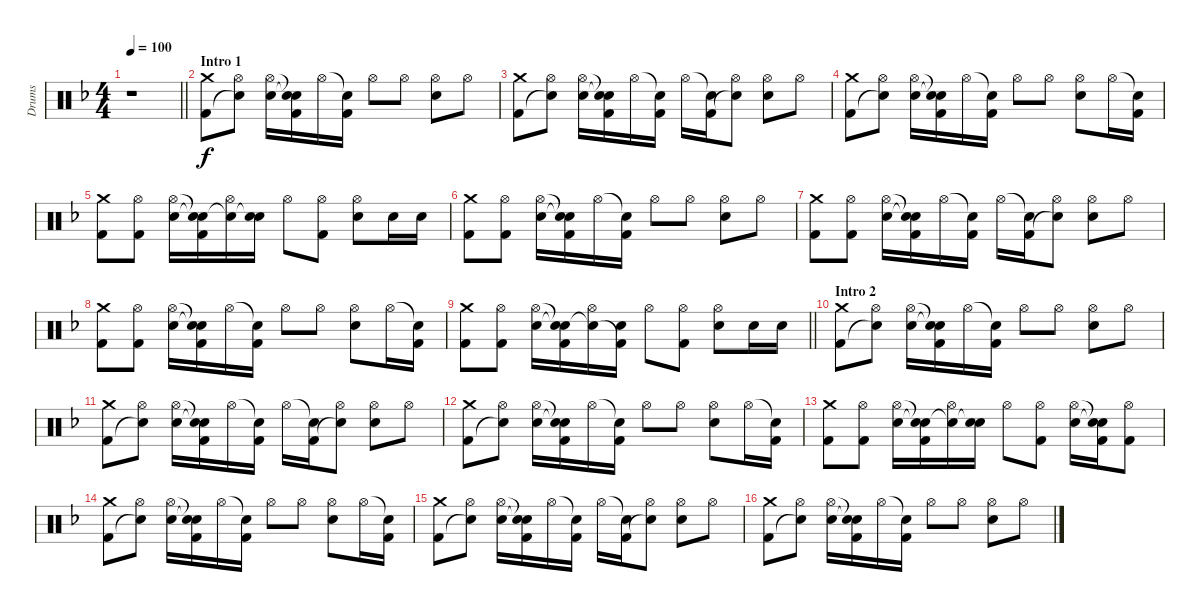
\track ("Drums" "Drums") {instrument percussion}
\staff {score}
\articulation defaults
\ts (4 4)
\tempo 100
\clef neutral
\barLineRight lightlight
\ks dminor
r.1{dy f} |
\section ("" "Intro 1")
("Crash medium (hit)" "Kick (hit) 2").8 ("Hi-Hat (open)" "Snare (hit)"{t}).8 ("Hi-Hat (open)" "Electric Snare (hit)").16 ("Snare (hit)"{t} "Snare (hit)"{t} "Kick (hit) 2").16 "Hi-Hat (open)".16 ("Snare (hit)"{t} "Kick (hit) 2").16 "Hi-Hat (open)".8 "Hi-Hat (open)".8 ("Hi-Hat (open)" "Electric Snare (hit)").8 "Hi-Hat (open)".8 |
("Crash medium (hit)" "Kick (hit) 2").8 ("Hi-Hat (open)" "Snare (hit)"{t}).8 ("Hi-Hat (open)" "Electric Snare (hit)").16 ("Snare (hit)"{t} "Snare (hit)"{t} "Kick (hit) 2").16 "Hi-Hat (open)".16 ("Snare (hit)"{t} "Kick (hit) 2").16 "Hi-Hat (open)".16 ("Snare (hit)"{t} "Kick (hit) 2").16 ("Hi-Hat (open)" "Snare (hit)"{t}).8 ("Hi-Hat (open)" "Electric Snare (hit)").8 "Hi-Hat (open)".8 |
("Crash medium (hit)" "Kick (hit) 2").8 ("Hi-Hat (open)" "Snare (hit)"{t}).8 ("Hi-Hat (open)" "Electric Snare (hit)").16 ("Snare (hit)"{t} "Snare (hit)"{t} "Kick (hit) 2").16 "Hi-Hat (open)".16 ("Snare (hit)"{t} "Kick (hit) 2").16 "Hi-Hat (open)".8 "Hi-Hat (open)".8 ("Hi-Hat (open)" "Electric Snare (hit)").8 "Hi-Hat (open)".16 ("Snare (hit)"{t} "Kick (hit) 2").16 |
("Crash medium (hit)" "Kick (hit) 2").8 ("Hi-Hat (open)" "Kick (hit) 2").8 ("Hi-Hat (open)" "Electric Snare (hit)").16 ("Snare (hit)"{t} "Snare (hit)"{t} "Kick (hit) 2").16 ("Hi-Hat (open)" "Snare (hit)"{t}).16 ("Electric Snare (hit)" "Snare (hit)"{t}).16 "Hi-Hat (open)".8 ("Hi-Hat (open)" "Kick (hit) 2").8 ("Hi-Hat (open)" "Electric Snare (hit)").8 "Electric Snare (hit)".16 "Electric Snare (hit)".16 |
("Crash medium (hit)" "Kick (hit) 2").8 ("Hi-Hat (open)" "Kick (hit) 2").8 ("Hi-Hat (open)" "Electric Snare (hit)").16 ("Snare (hit)"{t} "Snare (hit)"{t} "Kick (hit) 2").16 "Hi-Hat (open)".16 ("Snare (hit)"{t} "Kick (hit) 2").16 "Hi-Hat (open)".8 "Hi-Hat (open)".8 ("Hi-Hat (open)" "Electric Snare (hit)").8 "Hi-Hat (open)".8 |
("Crash medium (hit)" "Kick (hit) 2").8 ("Hi-Hat (open)" "Kick (hit) 2").8 ("Hi-Hat (open)" "Electric Snare (hit)").16 ("Snare (hit)"{t} "Snare (hit)"{t} "Kick (hit) 2").16 "Hi-Hat (open)".16 ("Snare (hit)"{t} "Kick (hit) 2").16 "Hi-Hat (open)".16 ("Snare (hit)"{t} "Kick (hit) 2").16 ("Hi-Hat (open)" "Snare (hit)"{t}).8 ("Hi-Hat (open)" "Electric Snare (hit)").8 "Hi-Hat (open)".8 |
("Crash medium (hit)" "Kick (hit) 2").8 ("Hi-Hat (open)" "Kick (hit) 2").8 ("Hi-Hat (open)" "Electric Snare (hit)").16 ("Snare (hit)"{t} "Snare (hit)"{t} "Kick (hit) 2").16 "Hi-Hat (open)".16 ("Snare (hit)"{t} "Kick (hit) 2").16 "Hi-Hat (open)".8 "Hi-Hat (open)".8 ("Hi-Hat (open)" "Electric Snare (hit)").8 "Hi-Hat (open)".16 ("Snare (hit)"{t} "Kick (hit) 2").16 |
\barLineRight lightlight
("Crash medium (hit)" "Kick (hit) 2").8 ("Hi-Hat (open)" "Kick (hit) 2").8 ("Hi-Hat (open)" "Electric Snare (hit)").16 ("Snare (hit)"{t} "Snare (hit)"{t} "Kick (hit) 2").16 ("Hi-Hat (open)" "Snare (hit)"{t}).16 ("Electric Snare (hit)" "Kick (hit) 2"{t}).16 "Hi-Hat (open)".8 ("Hi-Hat (open)" "Kick (hit) 2").8 ("Hi-Hat (open)" "Electric Snare (hit)").8 "Electric Snare (hit)".16 "Electric Snare (hit)".16 |
\section ("" "Intro 2")
("Crash medium (hit)" "Kick (hit) 2").8 ("Hi-Hat (open)" "Snare (hit)"{t}).8 ("Hi-Hat (open)" "Electric Snare (hit)").16 ("Snare (hit)"{t} "Snare (hit)"{t} "Kick (hit) 2").16 "Hi-Hat (open)".16 ("Snare (hit)"{t} "Kick (hit) 2").16 "Hi-Hat (open)".8 "Hi-Hat (open)".8 ("Hi-Hat (open)" "Electric Snare (hit)").8 "Hi-Hat (open)".8 |
("Crash medium (hit)" "Kick (hit) 2").8 ("Hi-Hat (open)" "Snare (hit)"{t}).8 ("Hi-Hat (open)" "Electric Snare (hit)").16 ("Snare (hit)"{t} "Snare (hit)"{t} "Kick (hit) 2").16 "Hi-Hat (open)".16 ("Snare (hit)"{t} "Kick (hit) 2").16 "Hi-Hat (open)".16 ("Snare (hit)"{t} "Kick (hit) 2").16 ("Hi-Hat (open)" "Snare (hit)"{t}).8 ("Hi-Hat (open)" "Electric Snare (hit)").8 "Hi-Hat (open)".8 |
("Crash medium (hit)" "Kick (hit) 2").8 ("Hi-Hat (open)" "Snare (hit)"{t}).8 ("Hi-Hat (open)" "Electric Snare (hit)").16 ("Snare (hit)"{t} "Snare (hit)"{t} "Kick (hit) 2").16 "Hi-Hat (open)".16 ("Snare (hit)"{t} "Kick (hit) 2").16 "Hi-Hat (open)".8 "Hi-Hat (open)".8 ("Hi-Hat (open)" "Electric Snare (hit)").8 "Hi-Hat (open)".16 ("Snare (hit)"{t} "Kick (hit) 2").16 |
("Crash medium (hit)" "Kick (hit) 2").8 ("Hi-Hat (open)" "Kick (hit) 2").8 ("Hi-Hat (open)" "Electric Snare (hit)").16 ("Snare (hit)"{t} "Snare (hit)"{t} "Kick (hit) 2").16 ("Hi-Hat (open)" "Snare (hit)"{t}).16 ("Electric Snare (hit)" "Snare (hit)"{t}).16 "Hi-Hat (open)".8 ("Hi-Hat (open)" "Kick (hit) 2").8 ("Hi-Hat (open)" "Electric Snare (hit)").16 ("Snare (hit)"{t} "Snare (hit)"{t} "Kick (hit) 2").16 ("Hi-Hat (open)" "Kick (hit) 2").8 |
("Crash medium (hit)" "Kick (hit) 2").8 ("Hi-Hat (open)" "Snare (hit)"{t}).8 ("Hi-Hat (open)" "Electric Snare (hit)").16 ("Snare (hit)"{t} "Snare (hit)"{t} "Kick (hit) 2").16 "Hi-Hat (open)".16 ("Snare (hit)"{t} "Kick (hit) 2").16 "Hi-Hat (open)".8 "Hi-Hat (open)".8 ("Hi-Hat (open)" "Electric Snare (hit)").8 "Hi-Hat (open)".16 ("Snare (hit)"{t} "Kick (hit) 2").16 |
("Crash medium (hit)" "Kick (hit) 2").8 ("Hi-Hat (open)" "Snare (hit)"{t}).8 ("Hi-Hat (open)" "Electric Snare (hit)").16 ("Snare (hit)"{t} "Snare (hit)"{t} "Kick (hit) 2").16 "Hi-Hat (open)".16 ("Snare (hit)"{t} "Kick (hit) 2").16 "Hi-Hat (open)".16 ("Snare (hit)"{t} "Kick (hit) 2").16 ("Hi-Hat (open)" "Snare (hit)"{t}).8 ("Hi-Hat (open)" "Electric Snare (hit)").8 "Hi-Hat (open)".8 |
("Crash medium (hit)" "Kick (hit) 2").8 ("Hi-Hat (open)" "Snare (hit)"{t}).8 ("Hi-Hat (open)" "Electric Snare (hit)").16 ("Snare (hit)"{t} "Snare (hit)"{t} "Kick (hit) 2").16 "Hi-Hat (open)".16 ("Snare (hit)"{t} "Kick (hit) 2").16 "Hi-Hat (open)".8 "Hi-Hat (open)".8 ("Hi-Hat (open)" "Electric Snare (hit)").8 "Hi-Hat (open)".8
